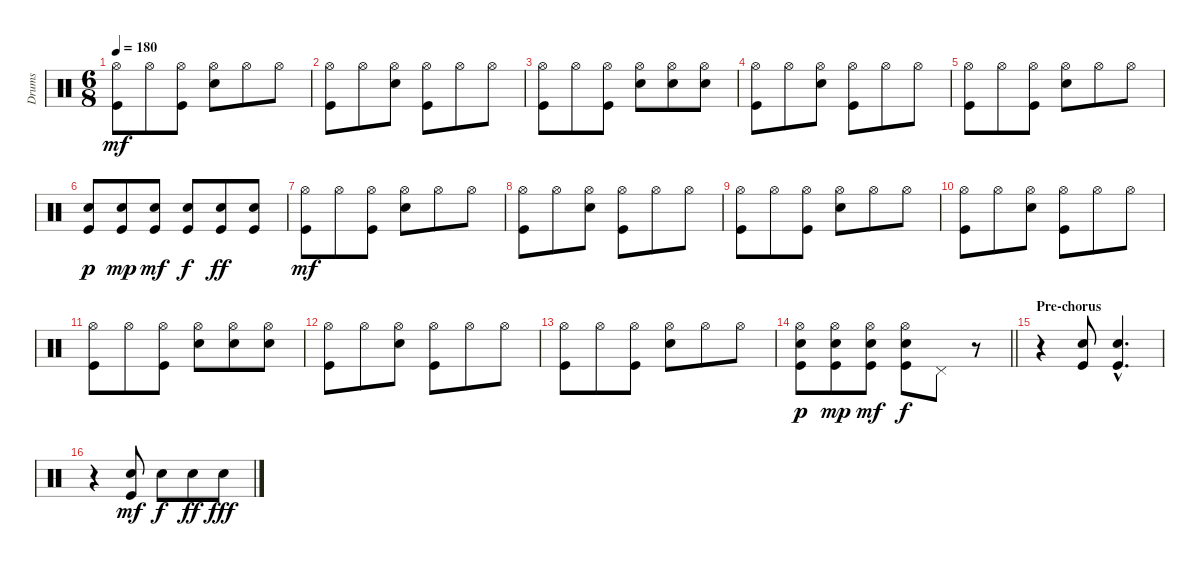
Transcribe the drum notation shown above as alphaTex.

\track ("Drums" "Drums") {instrument percussion}
\staff {score}
\articulation defaults
\ts (6 8)
\tempo 180
\clef neutral
\ks c
("Hi-Hat (open)" "Kick (hit)").8{dy mf} "Hi-Hat (open)".8 ("Hi-Hat (open)" "Kick (hit)").8 ("Hi-Hat (open)" "Electric Snare (hit)").8 "Hi-Hat (open)".8 "Hi-Hat (open)".8 |
("Hi-Hat (open)" "Kick (hit)").8 "Hi-Hat (open)".8 ("Hi-Hat (open)" "Electric Snare (hit)").8 ("Hi-Hat (open)" "Kick (hit)").8 "Hi-Hat (open)".8 "Hi-Hat (open)".8 |
("Hi-Hat (open)" "Kick (hit)").8 "Hi-Hat (open)".8 ("Hi-Hat (open)" "Kick (hit)").8 ("Hi-Hat (open)" "Electric Snare (hit)").8 ("Hi-Hat (open)" "Electric Snare (hit)").8 ("Hi-Hat (open)" "Electric Snare (hit)").8 |
("Hi-Hat (open)" "Kick (hit)").8 "Hi-Hat (open)".8 ("Hi-Hat (open)" "Electric Snare (hit)").8 ("Hi-Hat (open)" "Kick (hit)").8 "Hi-Hat (open)".8 "Hi-Hat (open)".8 |
("Hi-Hat (open)" "Kick (hit)").8 "Hi-Hat (open)".8 ("Hi-Hat (open)" "Kick (hit)").8 ("Hi-Hat (open)" "Electric Snare (hit)").8 "Hi-Hat (open)".8 "Hi-Hat (open)".8 |
("Electric Snare (hit)" "Kick (hit)").8{dy p} ("Electric Snare (hit)" "Kick (hit)").8{dy mp} ("Electric Snare (hit)" "Kick (hit)").8{dy mf} ("Electric Snare (hit)" "Kick (hit)").8{dy f} ("Electric Snare (hit)" "Kick (hit)").8{dy ff} ("Electric Snare (hit)" "Kick (hit)").8 |
("Hi-Hat (open)" "Kick (hit)").8{dy mf} "Hi-Hat (open)".8 ("Hi-Hat (open)" "Kick (hit)").8 ("Hi-Hat (open)" "Electric Snare (hit)").8 "Hi-Hat (open)".8 "Hi-Hat (open)".8 |
("Hi-Hat (open)" "Kick (hit)").8 "Hi-Hat (open)".8 ("Hi-Hat (open)" "Electric Snare (hit)").8 ("Hi-Hat (open)" "Kick (hit)").8 "Hi-Hat (open)".8 "Hi-Hat (open)".8 |
("Hi-Hat (open)" "Kick (hit)").8 "Hi-Hat (open)".8 ("Hi-Hat (open)" "Kick (hit)").8 ("Hi-Hat (open)" "Electric Snare (hit)").8 "Hi-Hat (open)".8 "Hi-Hat (open)".8 |
("Hi-Hat (open)" "Kick (hit)").8 "Hi-Hat (open)".8 ("Hi-Hat (open)" "Electric Snare (hit)").8 ("Hi-Hat (open)" "Kick (hit)").8 "Hi-Hat (open)".8 "Hi-Hat (open)".8 |
("Hi-Hat (open)" "Kick (hit)").8 "Hi-Hat (open)".8 ("Hi-Hat (open)" "Kick (hit)").8 ("Hi-Hat (open)" "Electric Snare (hit)").8 ("Hi-Hat (open)" "Electric Snare (hit)").8 ("Hi-Hat (open)" "Electric Snare (hit)").8 |
("Hi-Hat (open)" "Kick (hit)").8 "Hi-Hat (open)".8 ("Hi-Hat (open)" "Electric Snare (hit)").8 ("Hi-Hat (open)" "Kick (hit)").8 "Hi-Hat (open)".8 "Hi-Hat (open)".8 |
("Hi-Hat (open)" "Kick (hit)").8 "Hi-Hat (open)".8 ("Hi-Hat (open)" "Kick (hit)").8 ("Hi-Hat (open)" "Electric Snare (hit)").8 "Hi-Hat (open)".8 "Hi-Hat (open)".8 |
\barLineRight lightlight
("Hi-Hat (open)" "Electric Snare (hit)" "Kick (hit)").8{dy p} ("Hi-Hat (open)" "Electric Snare (hit)" "Kick (hit)").8{dy mp} ("Hi-Hat (open)" "Electric Snare (hit)" "Kick (hit)").8{dy mf} ("Hi-Hat (open)" "Electric Snare (hit)" "Kick (hit)").8{dy f} "Pedal Hi-Hat (hit)".8 r.8 |
\section ("" "Pre-chorus")
r.4 ("Electric Snare (hit)" "Kick (hit)").8 ("Electric Snare (hit)"{hac} "Kick (hit)"{hac}).4{d} |
r.4 ("Electric Snare (hit)" "Kick (hit)").8{dy mf} "Electric Snare (hit)".8{dy f} "Electric Snare (hit)".8{dy ff} "Electric Snare (hit)".8{dy fff}
